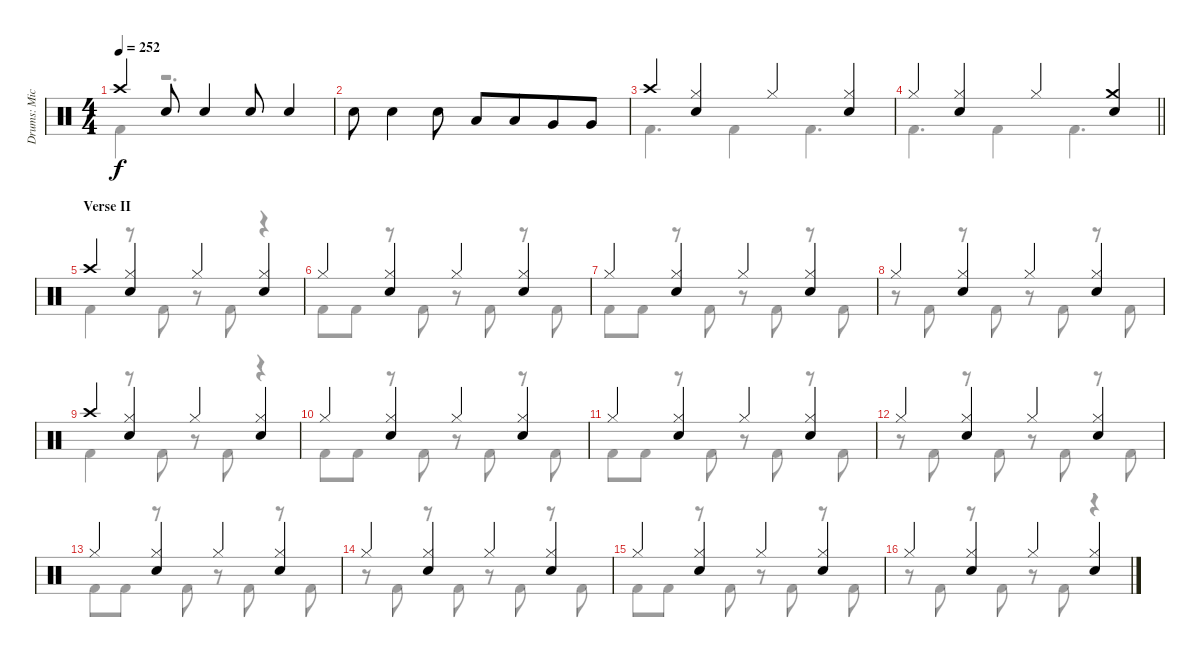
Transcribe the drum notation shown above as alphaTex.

\track ("Drums: Mick" "Drums: Mic") {instrument percussion}
\staff {score}
\articulation defaults
\voice
\ts (4 4)
\tempo 252
\clef neutral
\ks c "Crash high (hit)".4{dy f} "Snare (hit) 2".8 "Snare (hit) 2".4 "Snare (hit) 2".8 "Snare (hit) 2".4
|
"Snare (hit) 2".8 "Snare (hit) 2".4 "Snare (hit) 2".8 "Low Tom (hit)".8 "Low Tom (hit)".8{beam merge} "Very Low Tom (hit)".8 "Very Low Tom (hit)".8 |
"Crash high (hit)".4 ("Hi-Hat (closed)" "Snare (hit) 2").4 "Hi-Hat (closed)".4 ("Hi-Hat (closed)" "Snare (hit) 2").4 |
\barLineRight lightlight "Hi-Hat (closed)".4
("Hi-Hat (closed)" "Snare (hit) 2").4 "Hi-Hat (closed)".4 ("Crash medium (hit)" "Snare (hit) 2").4 |
\section ("" "Verse II")
"Crash high (hit)".4 ("Hi-Hat (closed)" "Snare (hit) 2").4 "Hi-Hat (closed)".4 ("Hi-Hat (closed)" "Snare (hit) 2").4 |
"Hi-Hat (closed)".4 ("Hi-Hat (closed)" "Snare (hit) 2").4 "Hi-Hat (closed)".4 ("Hi-Hat (closed)" "Snare (hit) 2").4 |
"Hi-Hat (closed)".4 ("Hi-Hat (closed)" "Snare (hit) 2").4 "Hi-Hat (closed)".4 ("Hi-Hat (closed)" "Snare (hit) 2").4 |
"Hi-Hat (closed)".4 ("Hi-Hat (closed)" "Snare (hit) 2").4 "Hi-Hat (closed)".4 ("Hi-Hat (closed)" "Snare (hit) 2").4 |
"Crash high (hit)".4 ("Hi-Hat (closed)" "Snare (hit) 2").4 "Hi-Hat (closed)".4 ("Hi-Hat (closed)" "Snare (hit) 2").4 |
"Hi-Hat (closed)".4 ("Hi-Hat (closed)" "Snare (hit) 2").4 "Hi-Hat (closed)".4 ("Hi-Hat (closed)" "Snare (hit) 2").4 |
"Hi-Hat (closed)".4 ("Hi-Hat (closed)" "Snare (hit) 2").4 "Hi-Hat (closed)".4 ("Hi-Hat (closed)" "Snare (hit) 2").4 |
"Hi-Hat (closed)".4 ("Hi-Hat (closed)" "Snare (hit) 2").4 "Hi-Hat (closed)".4 ("Hi-Hat (closed)" "Snare (hit) 2").4 |
"Hi-Hat (closed)".4 ("Hi-Hat (closed)" "Snare (hit) 2").4 "Hi-Hat (closed)".4 ("Hi-Hat (closed)" "Snare (hit) 2").4 |
"Hi-Hat (closed)".4 ("Hi-Hat (closed)" "Snare (hit) 2").4 "Hi-Hat (closed)".4 ("Hi-Hat (closed)" "Snare (hit) 2").4 |
"Hi-Hat (closed)".4 ("Hi-Hat (closed)" "Snare (hit) 2").4 "Hi-Hat (closed)".4 ("Hi-Hat (closed)" "Snare (hit) 2").4 |
"Hi-Hat (closed)".4 ("Hi-Hat (closed)" "Snare (hit) 2").4 "Hi-Hat (closed)".4 ("Hi-Hat (closed)" "Snare (hit) 2").4
\voice
\clef neutral
\ottava regular
\simile none
\ks c "Kick (hit) 2".4{dy f}
r.2{d} |
|
"Kick (hit) 2".4{d} "Kick (hit) 2".4 "Kick (hit) 2".4{d} |
\barLineRight lightlight "Kick (hit) 2".4{d} "Kick (hit) 2".4 "Kick (hit) 2".4{d}
|
"Kick (hit) 2".4 r.8 "Kick (hit) 2".8 r.8 "Kick (hit) 2".8 r.4 |
"Kick (hit) 2".8 "Kick (hit) 2".8 r.8 "Kick (hit) 2".8 r.8 "Kick (hit) 2".8 r.8 "Kick (hit) 2".8 |
"Kick (hit) 2".8 "Kick (hit) 2".8 r.8 "Kick (hit) 2".8 r.8 "Kick (hit) 2".8 r.8 "Kick (hit) 2".8 |
r.8 "Kick (hit) 2".8 r.8 "Kick (hit) 2".8 r.8 "Kick (hit) 2".8 r.8 "Kick (hit) 2".8 |
"Kick (hit) 2".4 r.8 "Kick (hit) 2".8 r.8 "Kick (hit) 2".8 r.4 |
"Kick (hit) 2".8 "Kick (hit) 2".8 r.8 "Kick (hit) 2".8 r.8 "Kick (hit) 2".8 r.8 "Kick (hit) 2".8 |
"Kick (hit) 2".8 "Kick (hit) 2".8 r.8 "Kick (hit) 2".8 r.8 "Kick (hit) 2".8 r.8 "Kick (hit) 2".8 |
r.8 "Kick (hit) 2".8 r.8 "Kick (hit) 2".8 r.8 "Kick (hit) 2".8 r.8 "Kick (hit) 2".8 |
"Kick (hit) 2".8 "Kick (hit) 2".8 r.8 "Kick (hit) 2".8 r.8 "Kick (hit) 2".8 r.8 "Kick (hit) 2".8 |
r.8 "Kick (hit) 2".8 r.8 "Kick (hit) 2".8 r.8 "Kick (hit) 2".8 r.8 "Kick (hit) 2".8 |
"Kick (hit) 2".8 "Kick (hit) 2".8 r.8 "Kick (hit) 2".8 r.8 "Kick (hit) 2".8 r.8 "Kick (hit) 2".8 |
r.8 "Kick (hit) 2".8 r.8 "Kick (hit) 2".8 r.8 "Kick (hit) 2".8 r.4
